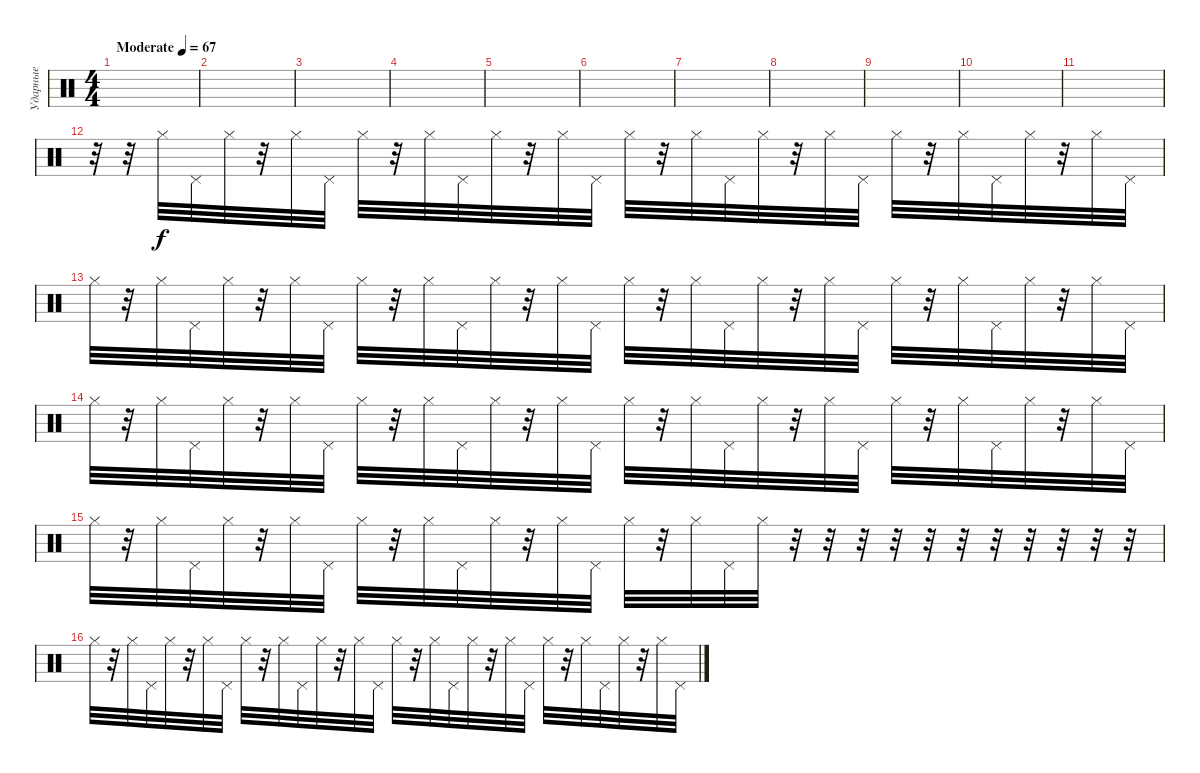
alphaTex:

\track ("Ударные" "Ударные") {instrument percussion}
\staff {score}
\articulation defaults
\ts (4 4)
\tempo (67 "Moderate")
\clef neutral
\ks c
|
|
|
|
|
|
|
|
|
|
|
r.32 r.32 "Hi-Hat (closed)".32 "Pedal Hi-Hat (hit)".32 "Hi-Hat (closed)".32 r.32 "Hi-Hat (closed)".32 "Pedal Hi-Hat (hit)".32 "Hi-Hat (closed)".32 r.32 "Hi-Hat (closed)".32 "Pedal Hi-Hat (hit)".32 "Hi-Hat (closed)".32 r.32 "Hi-Hat (closed)".32 "Pedal Hi-Hat (hit)".32 "Hi-Hat (closed)".32 r.32 "Hi-Hat (closed)".32 "Pedal Hi-Hat (hit)".32 "Hi-Hat (closed)".32 r.32 "Hi-Hat (closed)".32 "Pedal Hi-Hat (hit)".32 "Hi-Hat (closed)".32 r.32 "Hi-Hat (closed)".32 "Pedal Hi-Hat (hit)".32 "Hi-Hat (closed)".32 r.32 "Hi-Hat (closed)".32 "Pedal Hi-Hat (hit)".32 |
"Hi-Hat (closed)".32 r.32 "Hi-Hat (closed)".32 "Pedal Hi-Hat (hit)".32 "Hi-Hat (closed)".32 r.32 "Hi-Hat (closed)".32 "Pedal Hi-Hat (hit)".32 "Hi-Hat (closed)".32 r.32 "Hi-Hat (closed)".32 "Pedal Hi-Hat (hit)".32 "Hi-Hat (closed)".32 r.32 "Hi-Hat (closed)".32 "Pedal Hi-Hat (hit)".32 "Hi-Hat (closed)".32 r.32 "Hi-Hat (closed)".32 "Pedal Hi-Hat (hit)".32 "Hi-Hat (closed)".32 r.32 "Hi-Hat (closed)".32 "Pedal Hi-Hat (hit)".32 "Hi-Hat (closed)".32 r.32 "Hi-Hat (closed)".32 "Pedal Hi-Hat (hit)".32 "Hi-Hat (closed)".32 r.32 "Hi-Hat (closed)".32 "Pedal Hi-Hat (hit)".32 |
"Hi-Hat (closed)".32 r.32 "Hi-Hat (closed)".32 "Pedal Hi-Hat (hit)".32 "Hi-Hat (closed)".32 r.32 "Hi-Hat (closed)".32 "Pedal Hi-Hat (hit)".32 "Hi-Hat (closed)".32 r.32 "Hi-Hat (closed)".32 "Pedal Hi-Hat (hit)".32 "Hi-Hat (closed)".32 r.32 "Hi-Hat (closed)".32 "Pedal Hi-Hat (hit)".32 "Hi-Hat (closed)".32 r.32 "Hi-Hat (closed)".32 "Pedal Hi-Hat (hit)".32 "Hi-Hat (closed)".32 r.32 "Hi-Hat (closed)".32 "Pedal Hi-Hat (hit)".32 "Hi-Hat (closed)".32 r.32 "Hi-Hat (closed)".32 "Pedal Hi-Hat (hit)".32 "Hi-Hat (closed)".32 r.32 "Hi-Hat (closed)".32 "Pedal Hi-Hat (hit)".32 |
"Hi-Hat (closed)".32 r.32 "Hi-Hat (closed)".32 "Pedal Hi-Hat (hit)".32 "Hi-Hat (closed)".32 r.32 "Hi-Hat (closed)".32 "Pedal Hi-Hat (hit)".32 "Hi-Hat (closed)".32 r.32 "Hi-Hat (closed)".32 "Pedal Hi-Hat (hit)".32 "Hi-Hat (closed)".32 r.32 "Hi-Hat (closed)".32 "Pedal Hi-Hat (hit)".32 "Hi-Hat (closed)".32 r.32 "Hi-Hat (closed)".32 "Pedal Hi-Hat (hit)".32 "Hi-Hat (closed)".32 r.32 r.32 r.32 r.32 r.32 r.32 r.32 r.32 r.32 r.32 r.32 |
"Hi-Hat (closed)".32 r.32 "Hi-Hat (closed)".32 "Pedal Hi-Hat (hit)".32 "Hi-Hat (closed)".32 r.32 "Hi-Hat (closed)".32 "Pedal Hi-Hat (hit)".32 "Hi-Hat (closed)".32 r.32 "Hi-Hat (closed)".32 "Pedal Hi-Hat (hit)".32 "Hi-Hat (closed)".32 r.32 "Hi-Hat (closed)".32 "Pedal Hi-Hat (hit)".32 "Hi-Hat (closed)".32 r.32 "Hi-Hat (closed)".32 "Pedal Hi-Hat (hit)".32 "Hi-Hat (closed)".32 r.32 "Hi-Hat (closed)".32 "Pedal Hi-Hat (hit)".32 "Hi-Hat (closed)".32 r.32 "Hi-Hat (closed)".32 "Pedal Hi-Hat (hit)".32 "Hi-Hat (closed)".32 r.32 "Hi-Hat (closed)".32 "Pedal Hi-Hat (hit)".32
